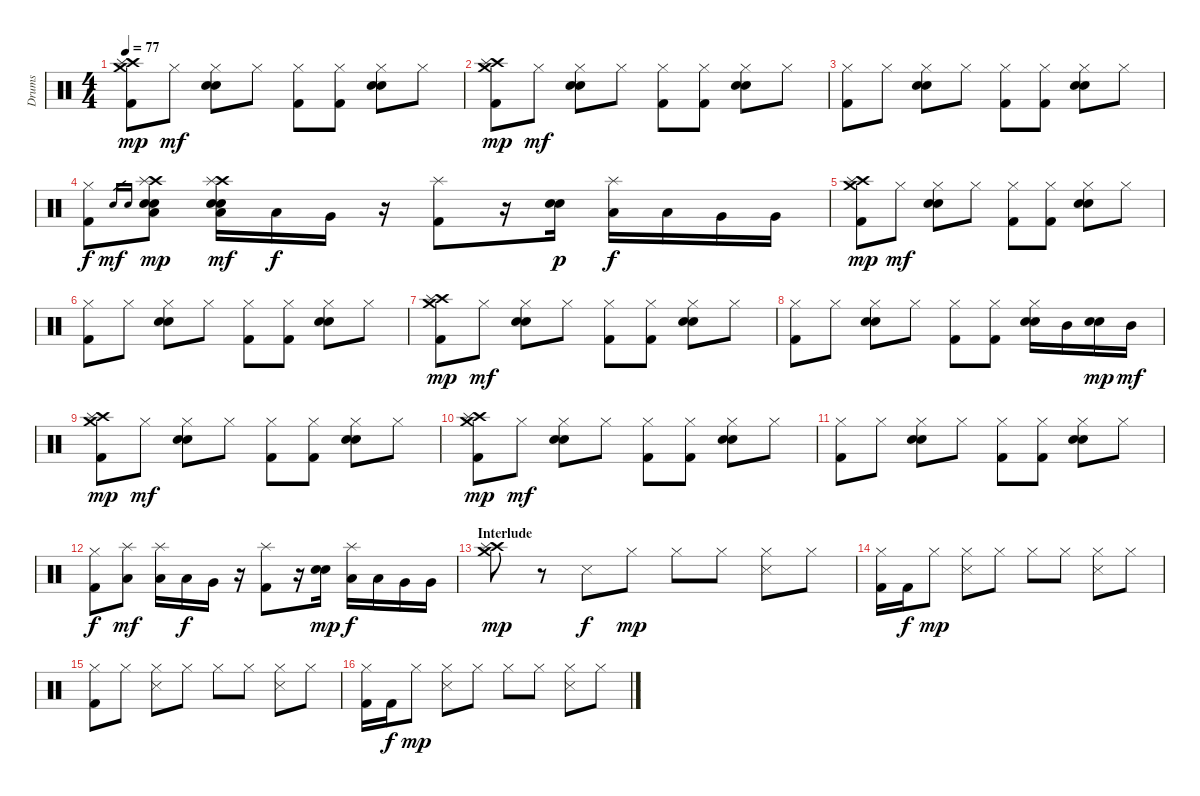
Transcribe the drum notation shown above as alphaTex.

\track ("Drums" "Drums") {instrument percussion}
\staff {score}
\articulation defaults
\ts (4 4)
\tempo 77
\clef neutral
\ks c
("Crash high (hit)" "Splash (hit)" "Crash medium (hit)" "Kick (hit) 2").8{dy mp} "Hi-Hat (closed)".8{dy mf} ("Hi-Hat (closed)" "Snare (hit) 2" "Electric Snare (hit)").8 "Hi-Hat (closed)".8 ("Hi-Hat (closed)" "Kick (hit) 2").8 ("Hi-Hat (closed)" "Kick (hit) 2").8 ("Hi-Hat (closed)" "Snare (hit) 2" "Electric Snare (hit)").8 "Hi-Hat (closed)".8 |
("Crash high (hit)" "Splash (hit)" "Crash medium (hit)" "Kick (hit) 2").8{dy mp} "Hi-Hat (closed)".8{dy mf} ("Hi-Hat (closed)" "Snare (hit) 2" "Electric Snare (hit)").8 "Hi-Hat (closed)".8 ("Hi-Hat (closed)" "Kick (hit) 2").8 ("Hi-Hat (closed)" "Kick (hit) 2").8 ("Hi-Hat (closed)" "Snare (hit) 2" "Electric Snare (hit)").8 "Hi-Hat (closed)".8 |
("Hi-Hat (closed)" "Kick (hit) 2").8 "Hi-Hat (closed)".8 ("Hi-Hat (closed)" "Snare (hit) 2" "Electric Snare (hit)").8 "Hi-Hat (closed)".8 ("Hi-Hat (closed)" "Kick (hit) 2").8 ("Hi-Hat (closed)" "Kick (hit) 2").8 ("Hi-Hat (closed)" "Snare (hit) 2" "Electric Snare (hit)").8 "Hi-Hat (closed)".8 |
("Hi-Hat (closed)" "Kick (hit) 2").8{dy f} "Snare (hit) 2".16{gr dy mf} "Electric Snare (hit)".16{gr} ("Crash high (hit)" "Splash (hit)" "Snare (hit) 2" "Electric Snare (hit)" "Low Tom (hit)").8{dy mp} ("Crash high (hit)" "Splash (hit)" "Snare (hit) 2" "Electric Snare (hit)" "Low Tom (hit)").16{dy mf} "Low Tom (hit)".16{dy f} "Very Low Tom (hit)".16 r.16 ("Splash (hit)" "Kick (hit) 2").8 r.16 ("Snare (hit) 2" "Electric Snare (hit)").16{dy p} ("Splash (hit)" "Low Tom (hit)").16{dy f} "Low Tom (hit)".16 "Very Low Tom (hit)".16 "Very Low Tom (hit)".16 |
("Crash high (hit)" "Splash (hit)" "Crash medium (hit)" "Kick (hit) 2").8{dy mp} "Hi-Hat (closed)".8{dy mf} ("Hi-Hat (closed)" "Snare (hit) 2" "Electric Snare (hit)").8 "Hi-Hat (closed)".8 ("Hi-Hat (closed)" "Kick (hit) 2").8 ("Hi-Hat (closed)" "Kick (hit) 2").8 ("Hi-Hat (closed)" "Snare (hit) 2" "Electric Snare (hit)").8 "Hi-Hat (closed)".8 |
("Hi-Hat (closed)" "Kick (hit) 2").8 "Hi-Hat (closed)".8 ("Hi-Hat (closed)" "Snare (hit) 2" "Electric Snare (hit)").8 "Hi-Hat (closed)".8 ("Hi-Hat (closed)" "Kick (hit) 2").8 ("Hi-Hat (closed)" "Kick (hit) 2").8 ("Hi-Hat (closed)" "Snare (hit) 2" "Electric Snare (hit)").8 "Hi-Hat (closed)".8 |
("Crash high (hit)" "Splash (hit)" "Crash medium (hit)" "Kick (hit) 2").8{dy mp} "Hi-Hat (closed)".8{dy mf} ("Hi-Hat (closed)" "Snare (hit) 2" "Electric Snare (hit)").8 "Hi-Hat (closed)".8 ("Hi-Hat (closed)" "Kick (hit) 2").8 ("Hi-Hat (closed)" "Kick (hit) 2").8 ("Hi-Hat (closed)" "Snare (hit) 2" "Electric Snare (hit)").8 "Hi-Hat (closed)".8 |
("Hi-Hat (closed)" "Kick (hit) 2").8 "Hi-Hat (closed)".8 ("Hi-Hat (closed)" "Electric Snare (hit)" "Snare (hit) 2").8 "Hi-Hat (closed)".8 ("Hi-Hat (closed)" "Kick (hit) 2").8 ("Hi-Hat (closed)" "Kick (hit) 2").8 ("Hi-Hat (closed)" "Electric Snare (hit)" "Snare (hit) 2").16 "Mid Tom (hit)".16 ("Electric Snare (hit)" "Snare (hit) 2").16{dy mp} "Mid Tom (hit)".16{dy mf} |
("Crash high (hit)" "Splash (hit)" "Crash medium (hit)" "Kick (hit) 2").8{dy mp} "Hi-Hat (closed)".8{dy mf} ("Hi-Hat (closed)" "Snare (hit) 2" "Electric Snare (hit)").8 "Hi-Hat (closed)".8 ("Hi-Hat (closed)" "Kick (hit) 2").8 ("Hi-Hat (closed)" "Kick (hit) 2").8 ("Hi-Hat (closed)" "Snare (hit) 2" "Electric Snare (hit)").8 "Hi-Hat (closed)".8 |
("Crash high (hit)" "Splash (hit)" "Crash medium (hit)" "Kick (hit) 2").8{dy mp} "Hi-Hat (closed)".8{dy mf} ("Hi-Hat (closed)" "Snare (hit) 2" "Electric Snare (hit)").8 "Hi-Hat (closed)".8 ("Hi-Hat (closed)" "Kick (hit) 2").8 ("Hi-Hat (closed)" "Kick (hit) 2").8 ("Hi-Hat (closed)" "Snare (hit) 2" "Electric Snare (hit)").8 "Hi-Hat (closed)".8 |
("Hi-Hat (closed)" "Kick (hit) 2").8 "Hi-Hat (closed)".8 ("Hi-Hat (closed)" "Snare (hit) 2" "Electric Snare (hit)").8 "Hi-Hat (closed)".8 ("Hi-Hat (closed)" "Kick (hit) 2").8 ("Hi-Hat (closed)" "Kick (hit) 2").8 ("Hi-Hat (closed)" "Snare (hit) 2" "Electric Snare (hit)").8 "Hi-Hat (closed)".8 |
("Hi-Hat (closed)" "Kick (hit) 2").8{dy f} ("Splash (hit)" "Low Tom (hit)").8{dy mf} ("Splash (hit)" "Low Tom (hit)").16 "Low Tom (hit)".16{dy f} "Very Low Tom (hit)".16 r.16 ("Splash (hit)" "Kick (hit) 2").8 r.16 ("Snare (hit) 2" "Electric Snare (hit)").16{dy mp} ("Splash (hit)" "Low Tom (hit)").16{dy f} "Low Tom (hit)".16 "Very Low Tom (hit)".16 "Very Low Tom (hit)".16 |
\section ("" "Interlude")
("Crash high (hit)" "Splash (hit)" "Crash medium (hit)").8{dy mp} r.8 "Snare (side stick) 3".8{dy f} "Hi-Hat (closed)".8{dy mp} "Hi-Hat (closed)".8 "Hi-Hat (closed)".8 ("Hi-Hat (closed)" "Snare (side stick) 3").8 "Hi-Hat (closed)".8 |
("Hi-Hat (closed)" "Kick (hit) 2").16 "Kick (hit) 2".16{dy f} "Hi-Hat (closed)".8{dy mp} ("Hi-Hat (closed)" "Snare (side stick) 3").8 "Hi-Hat (closed)".8 "Hi-Hat (closed)".8 "Hi-Hat (closed)".8 ("Hi-Hat (closed)" "Snare (side stick) 3").8 "Hi-Hat (closed)".8 |
("Hi-Hat (closed)" "Kick (hit) 2").8 "Hi-Hat (closed)".8 ("Hi-Hat (closed)" "Snare (side stick) 3").8 "Hi-Hat (closed)".8 "Hi-Hat (closed)".8 "Hi-Hat (closed)".8 ("Hi-Hat (closed)" "Snare (side stick) 3").8 "Hi-Hat (closed)".8 |
("Hi-Hat (closed)" "Kick (hit) 2").16 "Kick (hit) 2".16{dy f} "Hi-Hat (closed)".8{dy mp} ("Hi-Hat (closed)" "Snare (side stick) 3").8 "Hi-Hat (closed)".8 "Hi-Hat (closed)".8 "Hi-Hat (closed)".8 ("Hi-Hat (closed)" "Snare (side stick) 3").8 "Hi-Hat (closed)".8
